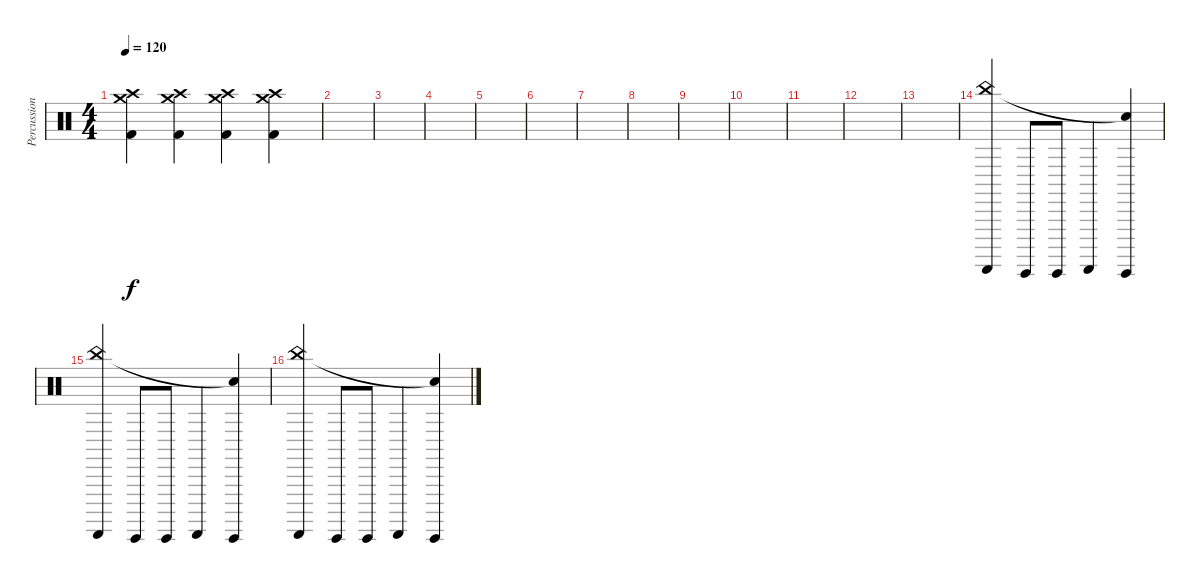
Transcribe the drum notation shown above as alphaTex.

\track ("Percussion" "Percussion") {instrument percussion}
\staff {score}
\articulation defaults
\ts (4 4)
\tempo 120
\clef neutral
\ks c
("Crash medium (hit)" "Crash high (hit)" "Kick (hit) 2").4{dy f} ("Crash medium (hit)" "Crash high (hit)" "Kick (hit) 2").4{volume 9} ("Crash medium (hit)" "Crash high (hit)" "Kick (hit) 2").4{volume 6} ("Crash medium (hit)" "Crash high (hit)" "Kick (hit) 2").4{volume 4} |
|
|
|
|
|
|
|
|
|
|
|
|
("Guiro (scrap-return)" "China (hit)").4{volume 13} "Guiro (hit)".8 "Guiro (hit)".8 "Guiro (scrap-return)".4 ("Guiro (hit)" "Snare (hit)"{t}).4 |
("Guiro (scrap-return)" "China (hit)").4 "Guiro (hit)".8 "Guiro (hit)".8 "Guiro (scrap-return)".4 ("Guiro (hit)" "Snare (hit)"{t}).4 |
("Guiro (scrap-return)" "China (hit)").4 "Guiro (hit)".8 "Guiro (hit)".8 "Guiro (scrap-return)".4 ("Guiro (hit)" "Snare (hit)"{t}).4
